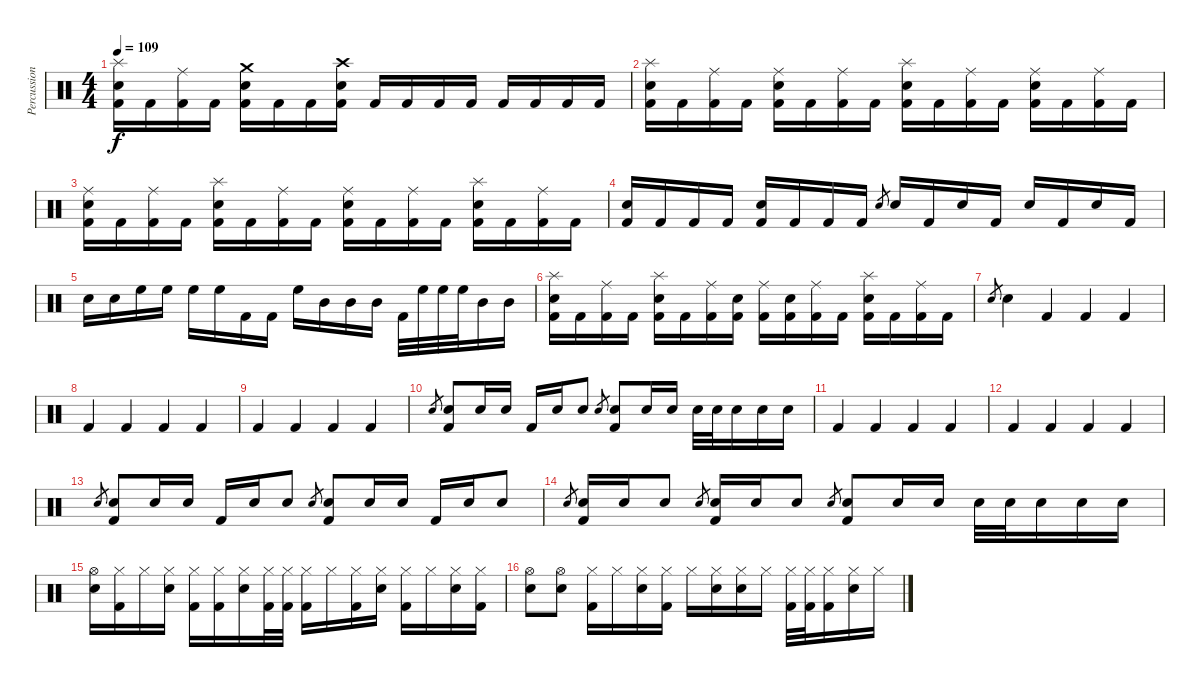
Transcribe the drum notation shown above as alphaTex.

\track ("Percussions" "Percussion") {instrument percussion}
\staff {score}
\articulation defaults
\ts (4 4)
\tempo 109
\clef neutral
\ks c
("Splash (hit)" "Electric Snare (hit)" "Kick (hit) 2").16{dy f} "Kick (hit) 2".16 ("Ride (middle)" "Kick (hit) 2").16 "Kick (hit) 2".16 ("Crash medium (hit)" "Electric Snare (hit)" "Kick (hit) 2").16 "Kick (hit) 2".16 "Kick (hit) 2".16 ("Crash high (hit)" "Electric Snare (hit)" "Kick (hit) 2").16 "Kick (hit) 2".16 "Kick (hit) 2".16 "Kick (hit) 2".16 "Kick (hit) 2".16 "Kick (hit) 2".16 "Kick (hit) 2".16 "Kick (hit) 2".16 "Kick (hit) 2".16 |
("Splash (hit)" "Electric Snare (hit)" "Kick (hit) 2").16 "Kick (hit) 2".16 ("Ride (middle)" "Kick (hit) 2").16 "Kick (hit) 2".16 ("Ride (middle)" "Electric Snare (hit)" "Kick (hit) 2").16 "Kick (hit) 2".16 ("Ride (middle)" "Kick (hit) 2").16 "Kick (hit) 2".16 ("Splash (hit)" "Electric Snare (hit)" "Kick (hit) 2").16 "Kick (hit) 2".16 ("Ride (middle)" "Kick (hit) 2").16 "Kick (hit) 2".16 ("Ride (middle)" "Electric Snare (hit)" "Kick (hit) 2").16 "Kick (hit) 2".16 ("Ride (middle)" "Kick (hit) 2").16 "Kick (hit) 2".16 |
("Ride (middle)" "Electric Snare (hit)" "Kick (hit) 2").16 "Kick (hit) 2".16 ("Ride (middle)" "Kick (hit) 2").16 "Kick (hit) 2".16 ("Splash (hit)" "Electric Snare (hit)" "Kick (hit) 2").16 "Kick (hit) 2".16 ("Ride (middle)" "Kick (hit) 2").16 "Kick (hit) 2".16 ("Ride (middle)" "Electric Snare (hit)" "Kick (hit) 2").16 "Kick (hit) 2".16 ("Ride (middle)" "Kick (hit) 2").16 "Kick (hit) 2".16 ("Splash (hit)" "Electric Snare (hit)" "Kick (hit) 2").16 "Kick (hit) 2".16 ("Ride (middle)" "Kick (hit) 2").16 "Kick (hit) 2".16 |
("Electric Snare (hit)" "Kick (hit) 2").16 "Kick (hit) 2".16 "Kick (hit) 2".16 "Kick (hit) 2".16 ("Electric Snare (hit)" "Kick (hit) 2").16 "Kick (hit) 2".16 "Kick (hit) 2".16 "Kick (hit) 2".16 "Electric Snare (hit)".8{gr} "Electric Snare (hit)".16 "Kick (hit) 2".16 "Electric Snare (hit)".16 "Kick (hit) 2".16 "Electric Snare (hit)".16 "Kick (hit) 2".16 "Electric Snare (hit)".16 "Kick (hit) 2".16 |
"Electric Snare (hit)".16 "Electric Snare (hit)".16 "High Floor Tom (hit)".16 "High Floor Tom (hit)".16 "High Floor Tom (hit)".16 "High Floor Tom (hit)".16 "Kick (hit) 2".16 "Kick (hit) 2".16 "High Floor Tom (hit)".16 "Mid Tom (hit)".16 "Mid Tom (hit)".16 "Mid Tom (hit)".16 "Kick (hit) 2".32 "High Floor Tom (hit)".32 "High Floor Tom (hit)".32 "High Floor Tom (hit)".32 "Mid Tom (hit)".16 "Mid Tom (hit)".16 |
("Splash (hit)" "Electric Snare (hit)" "Kick (hit) 2").16 "Kick (hit) 2".16 ("Ride (middle)" "Kick (hit) 2").16 "Kick (hit) 2".16 ("Splash (hit)" "Electric Snare (hit)" "Kick (hit) 2").16 "Kick (hit) 2".16 ("Ride (middle)" "Kick (hit) 2").16 ("Electric Snare (hit)" "Kick (hit) 2").16 ("Ride (middle)" "Kick (hit) 2").16 ("Electric Snare (hit)" "Kick (hit) 2").16 ("Ride (middle)" "Kick (hit) 2").16 "Kick (hit) 2".16 ("Splash (hit)" "Electric Snare (hit)" "Kick (hit) 2").16 "Kick (hit) 2".16 ("Ride (middle)" "Kick (hit) 2").16 "Kick (hit) 2".16 |
"Electric Snare (hit)".8{gr} "Electric Snare (hit)".4 "Kick (hit) 2".4 "Kick (hit) 2".4 "Kick (hit) 2".4 |
"Kick (hit) 2".4 "Kick (hit) 2".4 "Kick (hit) 2".4 "Kick (hit) 2".4 |
"Kick (hit) 2".4 "Kick (hit) 2".4 "Kick (hit) 2".4 "Kick (hit) 2".4 |
"Electric Snare (hit)".8{gr} ("Electric Snare (hit)" "Kick (hit) 2").8 "Electric Snare (hit)".16 "Electric Snare (hit)".16 "Kick (hit) 2".16 "Electric Snare (hit)".16 "Electric Snare (hit)".8 "Electric Snare (hit)".8{gr} ("Electric Snare (hit)" "Kick (hit) 2").8 "Electric Snare (hit)".16 "Electric Snare (hit)".16 "Electric Snare (hit)".32 "Electric Snare (hit)".32 "Electric Snare (hit)".16 "Electric Snare (hit)".16 "Electric Snare (hit)".16 |
"Kick (hit) 2".4 "Kick (hit) 2".4 "Kick (hit) 2".4 "Kick (hit) 2".4 |
"Kick (hit) 2".4 "Kick (hit) 2".4 "Kick (hit) 2".4 "Kick (hit) 2".4 |
"Electric Snare (hit)".8{gr} ("Electric Snare (hit)" "Kick (hit) 2").8 "Electric Snare (hit)".16 "Electric Snare (hit)".16 "Kick (hit) 2".16 "Electric Snare (hit)".16 "Electric Snare (hit)".8 "Electric Snare (hit)".8{gr} ("Electric Snare (hit)" "Kick (hit) 2").8 "Electric Snare (hit)".16 "Electric Snare (hit)".16 "Kick (hit) 2".16 "Electric Snare (hit)".16 "Electric Snare (hit)".8 |
"Electric Snare (hit)".8{gr} ("Electric Snare (hit)" "Kick (hit) 2").16 "Electric Snare (hit)".16 "Electric Snare (hit)".8 "Electric Snare (hit)".8{gr} ("Electric Snare (hit)" "Kick (hit) 2").16 "Electric Snare (hit)".16 "Electric Snare (hit)".8 "Electric Snare (hit)".8{gr} ("Electric Snare (hit)" "Kick (hit) 2").8 "Electric Snare (hit)".16 "Electric Snare (hit)".16 "Electric Snare (hit)".32 "Electric Snare (hit)".32 "Electric Snare (hit)".16 "Electric Snare (hit)".16 "Electric Snare (hit)".16 |
("Hi-Hat (open)" "Electric Snare (hit)").16 ("Hi-Hat (closed)" "Kick (hit) 2").16 "Hi-Hat (closed)".16 ("Hi-Hat (closed)" "Electric Snare (hit)").16 ("Hi-Hat (closed)" "Kick (hit) 2").16 ("Hi-Hat (closed)" "Kick (hit) 2").16 ("Hi-Hat (closed)" "Electric Snare (hit)").16 ("Hi-Hat (closed)" "Kick (hit) 2").32 ("Hi-Hat (closed)" "Kick (hit) 2").32 ("Hi-Hat (closed)" "Kick (hit) 2").16 "Hi-Hat (closed)".16 ("Hi-Hat (closed)" "Kick (hit) 2").16 ("Hi-Hat (closed)" "Electric Snare (hit)").16 ("Hi-Hat (closed)" "Kick (hit) 2").16 "Hi-Hat (closed)".16 ("Hi-Hat (closed)" "Electric Snare (hit)").16 ("Hi-Hat (closed)" "Kick (hit) 2").16 |
("Hi-Hat (open)" "Electric Snare (hit)").8 ("Hi-Hat (open)" "Electric Snare (hit)").8 ("Hi-Hat (closed)" "Kick (hit) 2").16 "Hi-Hat (closed)".16 ("Hi-Hat (closed)" "Electric Snare (hit)").16 ("Hi-Hat (closed)" "Kick (hit) 2").16 "Hi-Hat (closed)".16 ("Hi-Hat (closed)" "Electric Snare (hit)").16 ("Hi-Hat (closed)" "Electric Snare (hit)").16 "Hi-Hat (closed)".16 ("Hi-Hat (closed)" "Kick (hit) 2").32 ("Hi-Hat (closed)" "Kick (hit) 2").32 ("Hi-Hat (closed)" "Kick (hit) 2").16 ("Hi-Hat (closed)" "Electric Snare (hit)").16 "Hi-Hat (closed)".16
